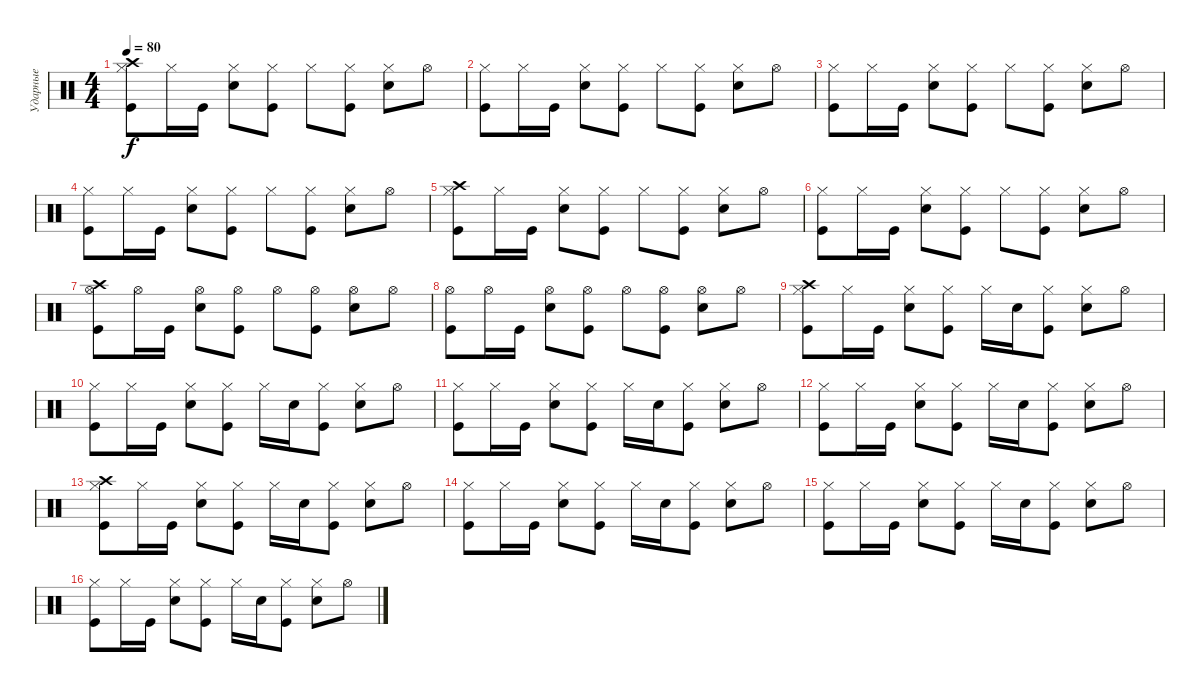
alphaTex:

\track ("Ударные" "Ударные") {instrument percussion}
\staff {score}
\articulation defaults
\ts (4 4)
\tempo 80
\clef neutral
\ks c
("Crash high (hit)" "Hi-Hat (closed)" "Kick (hit)").8{dy f balance 8} "Hi-Hat (closed)".16 "Kick (hit)".16 ("Hi-Hat (closed)" "Electric Snare (hit)").8 ("Hi-Hat (closed)" "Kick (hit)").8 "Hi-Hat (closed)".8 ("Hi-Hat (closed)" "Kick (hit)").8 ("Hi-Hat (closed)" "Electric Snare (hit)").8 "Hi-Hat (open)".8 |
("Hi-Hat (closed)" "Kick (hit)").8 "Hi-Hat (closed)".16 "Kick (hit)".16 ("Hi-Hat (closed)" "Electric Snare (hit)").8 ("Hi-Hat (closed)" "Kick (hit)").8 "Hi-Hat (closed)".8 ("Hi-Hat (closed)" "Kick (hit)").8 ("Hi-Hat (closed)" "Electric Snare (hit)").8 "Hi-Hat (open)".8 |
("Hi-Hat (closed)" "Kick (hit)").8 "Hi-Hat (closed)".16 "Kick (hit)".16 ("Hi-Hat (closed)" "Electric Snare (hit)").8 ("Hi-Hat (closed)" "Kick (hit)").8 "Hi-Hat (closed)".8 ("Hi-Hat (closed)" "Kick (hit)").8 ("Hi-Hat (closed)" "Electric Snare (hit)").8 "Hi-Hat (open)".8 |
("Hi-Hat (closed)" "Kick (hit)").8 "Hi-Hat (closed)".16 "Kick (hit)".16 ("Hi-Hat (closed)" "Electric Snare (hit)").8 ("Hi-Hat (closed)" "Kick (hit)").8 "Hi-Hat (closed)".8 ("Hi-Hat (closed)" "Kick (hit)").8 ("Hi-Hat (closed)" "Electric Snare (hit)").8 "Hi-Hat (open)".8 |
("Crash high (hit)" "Hi-Hat (closed)" "Kick (hit)").8 "Hi-Hat (closed)".16 "Kick (hit)".16 ("Hi-Hat (closed)" "Electric Snare (hit)").8 ("Hi-Hat (closed)" "Kick (hit)").8 "Hi-Hat (closed)".8 ("Hi-Hat (closed)" "Kick (hit)").8 ("Hi-Hat (closed)" "Electric Snare (hit)").8 "Hi-Hat (open)".8 |
("Hi-Hat (closed)" "Kick (hit)").8 "Hi-Hat (closed)".16 "Kick (hit)".16 ("Hi-Hat (closed)" "Electric Snare (hit)").8 ("Hi-Hat (closed)" "Kick (hit)").8 "Hi-Hat (closed)".8 ("Hi-Hat (closed)" "Kick (hit)").8 ("Hi-Hat (closed)" "Electric Snare (hit)").8 "Hi-Hat (open)".8 |
("Crash high (hit)" "Hi-Hat (open)" "Kick (hit)").8 "Hi-Hat (open)".16 "Kick (hit)".16 ("Hi-Hat (open)" "Electric Snare (hit)").8 ("Hi-Hat (open)" "Kick (hit)").8 "Hi-Hat (open)".8 ("Hi-Hat (open)" "Kick (hit)").8 ("Hi-Hat (open)" "Electric Snare (hit)").8 "Hi-Hat (open)".8 |
("Hi-Hat (open)" "Kick (hit)").8 "Hi-Hat (open)".16 "Kick (hit)".16 ("Hi-Hat (open)" "Electric Snare (hit)").8 ("Hi-Hat (open)" "Kick (hit)").8 "Hi-Hat (open)".8 ("Hi-Hat (open)" "Kick (hit)").8 ("Hi-Hat (open)" "Electric Snare (hit)").8 "Hi-Hat (open)".8 |
("Crash high (hit)" "Hi-Hat (closed)" "Kick (hit)").8{balance 0} "Hi-Hat (closed)".16 "Kick (hit)".16 ("Hi-Hat (closed)" "Electric Snare (hit)").8 ("Hi-Hat (closed)" "Kick (hit)").8 "Hi-Hat (closed)".16 "Electric Snare (hit)".16 ("Hi-Hat (closed)" "Kick (hit)").8 ("Hi-Hat (closed)" "Electric Snare (hit)").8 "Hi-Hat (open)".8 |
("Hi-Hat (closed)" "Kick (hit)").8 "Hi-Hat (closed)".16 "Kick (hit)".16 ("Hi-Hat (closed)" "Electric Snare (hit)").8 ("Hi-Hat (closed)" "Kick (hit)").8 "Hi-Hat (closed)".16 "Electric Snare (hit)".16 ("Hi-Hat (closed)" "Kick (hit)").8 ("Hi-Hat (closed)" "Electric Snare (hit)").8 "Hi-Hat (open)".8 |
("Hi-Hat (closed)" "Kick (hit)").8 "Hi-Hat (closed)".16 "Kick (hit)".16 ("Hi-Hat (closed)" "Electric Snare (hit)").8 ("Hi-Hat (closed)" "Kick (hit)").8 "Hi-Hat (closed)".16 "Electric Snare (hit)".16 ("Hi-Hat (closed)" "Kick (hit)").8 ("Hi-Hat (closed)" "Electric Snare (hit)").8 "Hi-Hat (open)".8 |
("Hi-Hat (closed)" "Kick (hit)").8 "Hi-Hat (closed)".16 "Kick (hit)".16 ("Hi-Hat (closed)" "Electric Snare (hit)").8 ("Hi-Hat (closed)" "Kick (hit)").8 "Hi-Hat (closed)".16 "Electric Snare (hit)".16 ("Hi-Hat (closed)" "Kick (hit)").8 ("Hi-Hat (closed)" "Electric Snare (hit)").8 "Hi-Hat (open)".8 |
("Crash high (hit)" "Hi-Hat (closed)" "Kick (hit)").8{balance 8} "Hi-Hat (closed)".16 "Kick (hit)".16 ("Hi-Hat (closed)" "Electric Snare (hit)").8 ("Hi-Hat (closed)" "Kick (hit)").8 "Hi-Hat (closed)".16 "Electric Snare (hit)".16 ("Hi-Hat (closed)" "Kick (hit)").8 ("Hi-Hat (closed)" "Electric Snare (hit)").8 "Hi-Hat (open)".8 |
("Hi-Hat (closed)" "Kick (hit)").8 "Hi-Hat (closed)".16 "Kick (hit)".16 ("Hi-Hat (closed)" "Electric Snare (hit)").8 ("Hi-Hat (closed)" "Kick (hit)").8 "Hi-Hat (closed)".16 "Electric Snare (hit)".16 ("Hi-Hat (closed)" "Kick (hit)").8 ("Hi-Hat (closed)" "Electric Snare (hit)").8 "Hi-Hat (open)".8 |
("Hi-Hat (closed)" "Kick (hit)").8 "Hi-Hat (closed)".16 "Kick (hit)".16 ("Hi-Hat (closed)" "Electric Snare (hit)").8 ("Hi-Hat (closed)" "Kick (hit)").8 "Hi-Hat (closed)".16 "Electric Snare (hit)".16 ("Hi-Hat (closed)" "Kick (hit)").8 ("Hi-Hat (closed)" "Electric Snare (hit)").8 "Hi-Hat (open)".8 |
("Hi-Hat (closed)" "Kick (hit)").8 "Hi-Hat (closed)".16 "Kick (hit)".16 ("Hi-Hat (closed)" "Electric Snare (hit)").8 ("Hi-Hat (closed)" "Kick (hit)").8 "Hi-Hat (closed)".16 "Electric Snare (hit)".16 ("Hi-Hat (closed)" "Kick (hit)").8 ("Hi-Hat (closed)" "Electric Snare (hit)").8 "Hi-Hat (open)".8
